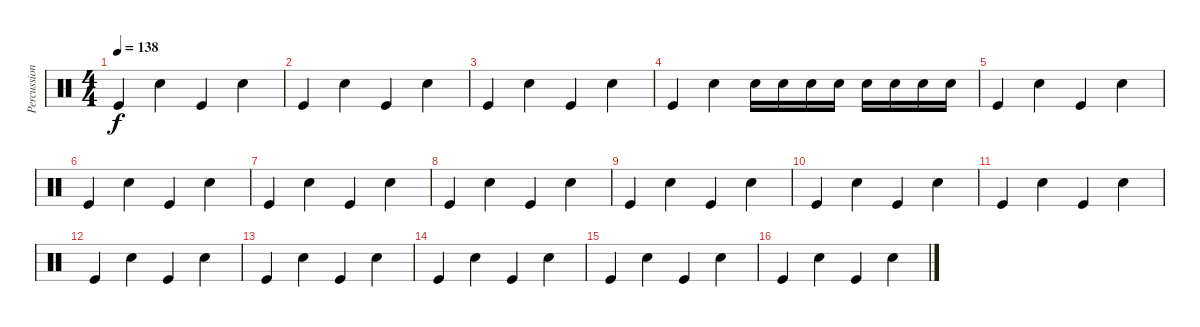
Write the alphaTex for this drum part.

\track ("Percussion" "Percussion") {instrument percussion}
\staff {score}
\articulation defaults
\ts (4 4)
\tempo 138
\clef neutral
\ks c "Kick (hit)".4{dy f} "Snare (hit) 2".4 "Kick (hit)".4 "Snare (hit) 2".4
|
"Kick (hit)".4 "Snare (hit) 2".4 "Kick (hit)".4 "Snare (hit) 2".4 |
"Kick (hit)".4 "Snare (hit) 2".4 "Kick (hit)".4 "Snare (hit) 2".4 |
"Kick (hit)".4 "Snare (hit) 2".4 "Snare (hit) 2".16 "Snare (hit) 2".16 "Snare (hit) 2".16 "Snare (hit) 2".16 "Snare (hit) 2".16 "Snare (hit) 2".16 "Snare (hit) 2".16 "Snare (hit) 2".16 |
"Kick (hit)".4 "Snare (hit) 2".4 "Kick (hit)".4 "Snare (hit) 2".4 |
"Kick (hit)".4 "Snare (hit) 2".4 "Kick (hit)".4 "Snare (hit) 2".4 |
"Kick (hit)".4 "Snare (hit) 2".4 "Kick (hit)".4 "Snare (hit) 2".4 |
"Kick (hit)".4 "Snare (hit) 2".4 "Kick (hit)".4 "Snare (hit) 2".4 |
"Kick (hit)".4 "Snare (hit) 2".4 "Kick (hit)".4 "Snare (hit) 2".4 |
"Kick (hit)".4 "Snare (hit) 2".4 "Kick (hit)".4 "Snare (hit) 2".4 |
"Kick (hit)".4 "Snare (hit) 2".4 "Kick (hit)".4 "Snare (hit) 2".4 |
"Kick (hit)".4 "Snare (hit) 2".4 "Kick (hit)".4 "Snare (hit) 2".4 |
"Kick (hit)".4 "Snare (hit) 2".4 "Kick (hit)".4 "Snare (hit) 2".4 |
"Kick (hit)".4 "Snare (hit) 2".4 "Kick (hit)".4 "Snare (hit) 2".4 |
"Kick (hit)".4 "Snare (hit) 2".4 "Kick (hit)".4 "Snare (hit) 2".4 |
"Kick (hit)".4 "Snare (hit) 2".4 "Kick (hit)".4 "Snare (hit) 2".4
